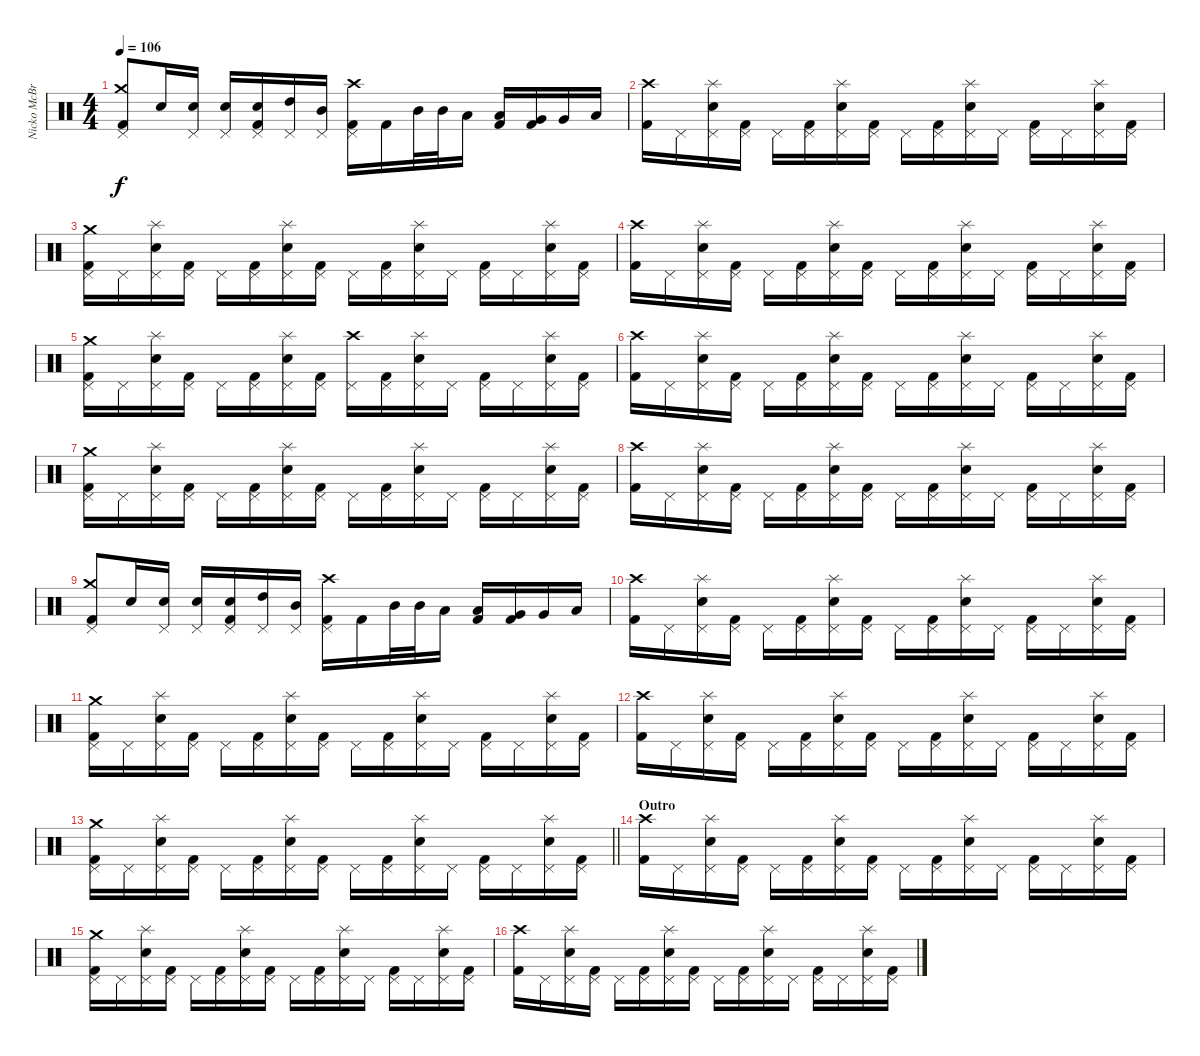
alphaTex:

\track ("Nicko McBrain" "Nicko McBr") {instrument percussion}
\staff {score}
\articulation defaults
\ts (4 4)
\tempo 106
\clef neutral
\ks c
("Pedal Hi-Hat (hit)" "Crash medium (hit)" "Kick (hit) 2").8{dy f} "Snare (hit) 2".16 ("Pedal Hi-Hat (hit)" "Snare (hit) 2").16 ("Pedal Hi-Hat (hit)" "Snare (hit) 2").16 ("Pedal Hi-Hat (hit)" "Snare (hit) 2" "Kick (hit) 2").16 ("Pedal Hi-Hat (hit)" "High Tom (hit)").16 ("Pedal Hi-Hat (hit)" "Mid Tom (hit)").16 ("Pedal Hi-Hat (hit)" "Crash high (hit)" "Kick (hit) 2").16 "Kick (hit) 2".16 "Mid Tom (hit)".32 "Mid Tom (hit)".32 "Low Tom (hit)".16 ("Low Tom (hit)" "Kick (hit) 2").16 ("Very Low Tom (hit)" "Kick (hit) 2").16 "Very Low Tom (hit)".16 "Low Floor Tom (hit)".16 |
("Crash high (hit)" "Kick (hit) 2").16 "Pedal Hi-Hat (hit)".16 ("Pedal Hi-Hat (hit)" "Snare (hit) 2" "Splash (hit)").16 ("Pedal Hi-Hat (hit)" "Kick (hit) 2").16 "Pedal Hi-Hat (hit)".16 ("Pedal Hi-Hat (hit)" "Kick (hit) 2").16 ("Pedal Hi-Hat (hit)" "Snare (hit) 2" "Splash (hit)").16 ("Pedal Hi-Hat (hit)" "Kick (hit) 2").16 "Pedal Hi-Hat (hit)".16 ("Pedal Hi-Hat (hit)" "Kick (hit) 2").16 ("Pedal Hi-Hat (hit)" "Snare (hit) 2" "Splash (hit)").16 "Pedal Hi-Hat (hit)".16 ("Pedal Hi-Hat (hit)" "Kick (hit) 2").16 "Pedal Hi-Hat (hit)".16 ("Pedal Hi-Hat (hit)" "Snare (hit) 2" "Splash (hit)").16 ("Pedal Hi-Hat (hit)" "Kick (hit) 2").16 |
("Pedal Hi-Hat (hit)" "Crash medium (hit)" "Kick (hit) 2").16 "Pedal Hi-Hat (hit)".16 ("Pedal Hi-Hat (hit)" "Snare (hit) 2" "Splash (hit)").16 ("Pedal Hi-Hat (hit)" "Kick (hit) 2").16 "Pedal Hi-Hat (hit)".16 ("Pedal Hi-Hat (hit)" "Kick (hit) 2").16 ("Pedal Hi-Hat (hit)" "Snare (hit) 2" "Splash (hit)").16 ("Pedal Hi-Hat (hit)" "Kick (hit) 2").16 "Pedal Hi-Hat (hit)".16 ("Pedal Hi-Hat (hit)" "Kick (hit) 2").16 ("Pedal Hi-Hat (hit)" "Snare (hit) 2" "Splash (hit)").16 "Pedal Hi-Hat (hit)".16 ("Pedal Hi-Hat (hit)" "Kick (hit) 2").16 "Pedal Hi-Hat (hit)".16 ("Pedal Hi-Hat (hit)" "Snare (hit) 2" "Splash (hit)").16 ("Pedal Hi-Hat (hit)" "Kick (hit) 2").16 |
("Crash high (hit)" "Kick (hit) 2").16 "Pedal Hi-Hat (hit)".16 ("Pedal Hi-Hat (hit)" "Snare (hit) 2" "Splash (hit)").16 ("Pedal Hi-Hat (hit)" "Kick (hit) 2").16 "Pedal Hi-Hat (hit)".16 ("Pedal Hi-Hat (hit)" "Kick (hit) 2").16 ("Pedal Hi-Hat (hit)" "Snare (hit) 2" "Splash (hit)").16 ("Pedal Hi-Hat (hit)" "Kick (hit) 2").16 "Pedal Hi-Hat (hit)".16 ("Pedal Hi-Hat (hit)" "Kick (hit) 2").16 ("Pedal Hi-Hat (hit)" "Snare (hit) 2" "Splash (hit)").16 "Pedal Hi-Hat (hit)".16 ("Pedal Hi-Hat (hit)" "Kick (hit) 2").16 "Pedal Hi-Hat (hit)".16 ("Pedal Hi-Hat (hit)" "Snare (hit) 2" "Splash (hit)").16 ("Pedal Hi-Hat (hit)" "Kick (hit) 2").16 |
("Pedal Hi-Hat (hit)" "Crash medium (hit)" "Kick (hit) 2").16 "Pedal Hi-Hat (hit)".16 ("Pedal Hi-Hat (hit)" "Snare (hit) 2" "Splash (hit)").16 ("Pedal Hi-Hat (hit)" "Kick (hit) 2").16 "Pedal Hi-Hat (hit)".16 ("Pedal Hi-Hat (hit)" "Kick (hit) 2").16 ("Pedal Hi-Hat (hit)" "Snare (hit) 2" "Splash (hit)").16 ("Pedal Hi-Hat (hit)" "Kick (hit) 2").16 ("Pedal Hi-Hat (hit)" "Crash high (hit)").16 ("Pedal Hi-Hat (hit)" "Kick (hit) 2").16 ("Pedal Hi-Hat (hit)" "Snare (hit) 2" "Splash (hit)").16 "Pedal Hi-Hat (hit)".16 ("Pedal Hi-Hat (hit)" "Kick (hit) 2").16 "Pedal Hi-Hat (hit)".16 ("Pedal Hi-Hat (hit)" "Snare (hit) 2" "Splash (hit)").16 ("Pedal Hi-Hat (hit)" "Kick (hit) 2").16 |
("Crash high (hit)" "Kick (hit) 2").16 "Pedal Hi-Hat (hit)".16 ("Pedal Hi-Hat (hit)" "Snare (hit) 2" "Splash (hit)").16 ("Pedal Hi-Hat (hit)" "Kick (hit) 2").16 "Pedal Hi-Hat (hit)".16 ("Pedal Hi-Hat (hit)" "Kick (hit) 2").16 ("Pedal Hi-Hat (hit)" "Snare (hit) 2" "Splash (hit)").16 ("Pedal Hi-Hat (hit)" "Kick (hit) 2").16 "Pedal Hi-Hat (hit)".16 ("Pedal Hi-Hat (hit)" "Kick (hit) 2").16 ("Pedal Hi-Hat (hit)" "Snare (hit) 2" "Splash (hit)").16 "Pedal Hi-Hat (hit)".16 ("Pedal Hi-Hat (hit)" "Kick (hit) 2").16 "Pedal Hi-Hat (hit)".16 ("Pedal Hi-Hat (hit)" "Snare (hit) 2" "Splash (hit)").16 ("Pedal Hi-Hat (hit)" "Kick (hit) 2").16 |
("Pedal Hi-Hat (hit)" "Crash medium (hit)" "Kick (hit) 2").16 "Pedal Hi-Hat (hit)".16 ("Pedal Hi-Hat (hit)" "Snare (hit) 2" "Splash (hit)").16 ("Pedal Hi-Hat (hit)" "Kick (hit) 2").16 "Pedal Hi-Hat (hit)".16 ("Pedal Hi-Hat (hit)" "Kick (hit) 2").16 ("Pedal Hi-Hat (hit)" "Snare (hit) 2" "Splash (hit)").16 ("Pedal Hi-Hat (hit)" "Kick (hit) 2").16 "Pedal Hi-Hat (hit)".16 ("Pedal Hi-Hat (hit)" "Kick (hit) 2").16 ("Pedal Hi-Hat (hit)" "Snare (hit) 2" "Splash (hit)").16 "Pedal Hi-Hat (hit)".16 ("Pedal Hi-Hat (hit)" "Kick (hit) 2").16 "Pedal Hi-Hat (hit)".16 ("Pedal Hi-Hat (hit)" "Snare (hit) 2" "Splash (hit)").16 ("Pedal Hi-Hat (hit)" "Kick (hit) 2").16 |
("Crash high (hit)" "Kick (hit) 2").16 "Pedal Hi-Hat (hit)".16 ("Pedal Hi-Hat (hit)" "Snare (hit) 2" "Splash (hit)").16 ("Pedal Hi-Hat (hit)" "Kick (hit) 2").16 "Pedal Hi-Hat (hit)".16 ("Pedal Hi-Hat (hit)" "Kick (hit) 2").16 ("Pedal Hi-Hat (hit)" "Snare (hit) 2" "Splash (hit)").16 ("Pedal Hi-Hat (hit)" "Kick (hit) 2").16 "Pedal Hi-Hat (hit)".16 ("Pedal Hi-Hat (hit)" "Kick (hit) 2").16 ("Pedal Hi-Hat (hit)" "Snare (hit) 2" "Splash (hit)").16 "Pedal Hi-Hat (hit)".16 ("Pedal Hi-Hat (hit)" "Kick (hit) 2").16 "Pedal Hi-Hat (hit)".16 ("Pedal Hi-Hat (hit)" "Snare (hit) 2" "Splash (hit)").16 ("Pedal Hi-Hat (hit)" "Kick (hit) 2").16 |
("Pedal Hi-Hat (hit)" "Crash medium (hit)" "Kick (hit) 2").8 "Snare (hit) 2".16 ("Pedal Hi-Hat (hit)" "Snare (hit) 2").16 ("Pedal Hi-Hat (hit)" "Snare (hit) 2").16 ("Pedal Hi-Hat (hit)" "Snare (hit) 2" "Kick (hit) 2").16 ("Pedal Hi-Hat (hit)" "High Tom (hit)").16 ("Pedal Hi-Hat (hit)" "Mid Tom (hit)").16 ("Pedal Hi-Hat (hit)" "Crash high (hit)" "Kick (hit) 2").16 "Kick (hit) 2".16 "Mid Tom (hit)".32 "Mid Tom (hit)".32 "Low Tom (hit)".16 ("Low Tom (hit)" "Kick (hit) 2").16 ("Very Low Tom (hit)" "Kick (hit) 2").16 "Very Low Tom (hit)".16 "Low Floor Tom (hit)".16 |
("Crash high (hit)" "Kick (hit) 2").16 "Pedal Hi-Hat (hit)".16 ("Pedal Hi-Hat (hit)" "Snare (hit) 2" "Splash (hit)").16 ("Pedal Hi-Hat (hit)" "Kick (hit) 2").16 "Pedal Hi-Hat (hit)".16 ("Pedal Hi-Hat (hit)" "Kick (hit) 2").16 ("Pedal Hi-Hat (hit)" "Snare (hit) 2" "Splash (hit)").16 ("Pedal Hi-Hat (hit)" "Kick (hit) 2").16 "Pedal Hi-Hat (hit)".16 ("Pedal Hi-Hat (hit)" "Kick (hit) 2").16 ("Pedal Hi-Hat (hit)" "Snare (hit) 2" "Splash (hit)").16 "Pedal Hi-Hat (hit)".16 ("Pedal Hi-Hat (hit)" "Kick (hit) 2").16 "Pedal Hi-Hat (hit)".16 ("Pedal Hi-Hat (hit)" "Snare (hit) 2" "Splash (hit)").16 ("Pedal Hi-Hat (hit)" "Kick (hit) 2").16 |
("Pedal Hi-Hat (hit)" "Crash medium (hit)" "Kick (hit) 2").16 "Pedal Hi-Hat (hit)".16 ("Pedal Hi-Hat (hit)" "Snare (hit) 2" "Splash (hit)").16 ("Pedal Hi-Hat (hit)" "Kick (hit) 2").16 "Pedal Hi-Hat (hit)".16 ("Pedal Hi-Hat (hit)" "Kick (hit) 2").16 ("Pedal Hi-Hat (hit)" "Snare (hit) 2" "Splash (hit)").16 ("Pedal Hi-Hat (hit)" "Kick (hit) 2").16 "Pedal Hi-Hat (hit)".16 ("Pedal Hi-Hat (hit)" "Kick (hit) 2").16 ("Pedal Hi-Hat (hit)" "Snare (hit) 2" "Splash (hit)").16 "Pedal Hi-Hat (hit)".16 ("Pedal Hi-Hat (hit)" "Kick (hit) 2").16 "Pedal Hi-Hat (hit)".16 ("Pedal Hi-Hat (hit)" "Snare (hit) 2" "Splash (hit)").16 ("Pedal Hi-Hat (hit)" "Kick (hit) 2").16 |
("Crash high (hit)" "Kick (hit) 2").16 "Pedal Hi-Hat (hit)".16 ("Pedal Hi-Hat (hit)" "Snare (hit) 2" "Splash (hit)").16 ("Pedal Hi-Hat (hit)" "Kick (hit) 2").16 "Pedal Hi-Hat (hit)".16 ("Pedal Hi-Hat (hit)" "Kick (hit) 2").16 ("Pedal Hi-Hat (hit)" "Snare (hit) 2" "Splash (hit)").16 ("Pedal Hi-Hat (hit)" "Kick (hit) 2").16 "Pedal Hi-Hat (hit)".16 ("Pedal Hi-Hat (hit)" "Kick (hit) 2").16 ("Pedal Hi-Hat (hit)" "Snare (hit) 2" "Splash (hit)").16 "Pedal Hi-Hat (hit)".16 ("Pedal Hi-Hat (hit)" "Kick (hit) 2").16 "Pedal Hi-Hat (hit)".16 ("Pedal Hi-Hat (hit)" "Snare (hit) 2" "Splash (hit)").16 ("Pedal Hi-Hat (hit)" "Kick (hit) 2").16 |
\barLineRight lightlight
("Pedal Hi-Hat (hit)" "Crash medium (hit)" "Kick (hit) 2").16 "Pedal Hi-Hat (hit)".16 ("Pedal Hi-Hat (hit)" "Snare (hit) 2" "Splash (hit)").16 ("Pedal Hi-Hat (hit)" "Kick (hit) 2").16 "Pedal Hi-Hat (hit)".16 ("Pedal Hi-Hat (hit)" "Kick (hit) 2").16 ("Pedal Hi-Hat (hit)" "Snare (hit) 2" "Splash (hit)").16 ("Pedal Hi-Hat (hit)" "Kick (hit) 2").16 "Pedal Hi-Hat (hit)".16 ("Pedal Hi-Hat (hit)" "Kick (hit) 2").16 ("Pedal Hi-Hat (hit)" "Snare (hit) 2" "Splash (hit)").16 "Pedal Hi-Hat (hit)".16 ("Pedal Hi-Hat (hit)" "Kick (hit) 2").16 "Pedal Hi-Hat (hit)".16 ("Pedal Hi-Hat (hit)" "Snare (hit) 2" "Splash (hit)").16 ("Pedal Hi-Hat (hit)" "Kick (hit) 2").16 |
\section ("" "Outro")
("Crash high (hit)" "Kick (hit) 2").16 "Pedal Hi-Hat (hit)".16 ("Pedal Hi-Hat (hit)" "Snare (hit) 2" "Splash (hit)").16 ("Pedal Hi-Hat (hit)" "Kick (hit) 2").16 "Pedal Hi-Hat (hit)".16 ("Pedal Hi-Hat (hit)" "Kick (hit) 2").16 ("Pedal Hi-Hat (hit)" "Snare (hit) 2" "Splash (hit)").16 ("Pedal Hi-Hat (hit)" "Kick (hit) 2").16 "Pedal Hi-Hat (hit)".16 ("Pedal Hi-Hat (hit)" "Kick (hit) 2").16 ("Pedal Hi-Hat (hit)" "Snare (hit) 2" "Splash (hit)").16 "Pedal Hi-Hat (hit)".16 ("Pedal Hi-Hat (hit)" "Kick (hit) 2").16 "Pedal Hi-Hat (hit)".16 ("Pedal Hi-Hat (hit)" "Snare (hit) 2" "Splash (hit)").16 ("Pedal Hi-Hat (hit)" "Kick (hit) 2").16 |
("Pedal Hi-Hat (hit)" "Crash medium (hit)" "Kick (hit) 2").16 "Pedal Hi-Hat (hit)".16 ("Pedal Hi-Hat (hit)" "Snare (hit) 2" "Splash (hit)").16 ("Pedal Hi-Hat (hit)" "Kick (hit) 2").16 "Pedal Hi-Hat (hit)".16 ("Pedal Hi-Hat (hit)" "Kick (hit) 2").16 ("Pedal Hi-Hat (hit)" "Snare (hit) 2" "Splash (hit)").16 ("Pedal Hi-Hat (hit)" "Kick (hit) 2").16 "Pedal Hi-Hat (hit)".16 ("Pedal Hi-Hat (hit)" "Kick (hit) 2").16 ("Pedal Hi-Hat (hit)" "Snare (hit) 2" "Splash (hit)").16 "Pedal Hi-Hat (hit)".16 ("Pedal Hi-Hat (hit)" "Kick (hit) 2").16 "Pedal Hi-Hat (hit)".16 ("Pedal Hi-Hat (hit)" "Snare (hit) 2" "Splash (hit)").16 ("Pedal Hi-Hat (hit)" "Kick (hit) 2").16 |
("Crash high (hit)" "Kick (hit) 2").16 "Pedal Hi-Hat (hit)".16 ("Pedal Hi-Hat (hit)" "Snare (hit) 2" "Splash (hit)").16 ("Pedal Hi-Hat (hit)" "Kick (hit) 2").16 "Pedal Hi-Hat (hit)".16 ("Pedal Hi-Hat (hit)" "Kick (hit) 2").16 ("Pedal Hi-Hat (hit)" "Snare (hit) 2" "Splash (hit)").16 ("Pedal Hi-Hat (hit)" "Kick (hit) 2").16 "Pedal Hi-Hat (hit)".16 ("Pedal Hi-Hat (hit)" "Kick (hit) 2").16 ("Pedal Hi-Hat (hit)" "Snare (hit) 2" "Splash (hit)").16 "Pedal Hi-Hat (hit)".16 ("Pedal Hi-Hat (hit)" "Kick (hit) 2").16 "Pedal Hi-Hat (hit)".16 ("Pedal Hi-Hat (hit)" "Snare (hit) 2" "Splash (hit)").16 ("Pedal Hi-Hat (hit)" "Kick (hit) 2").16
